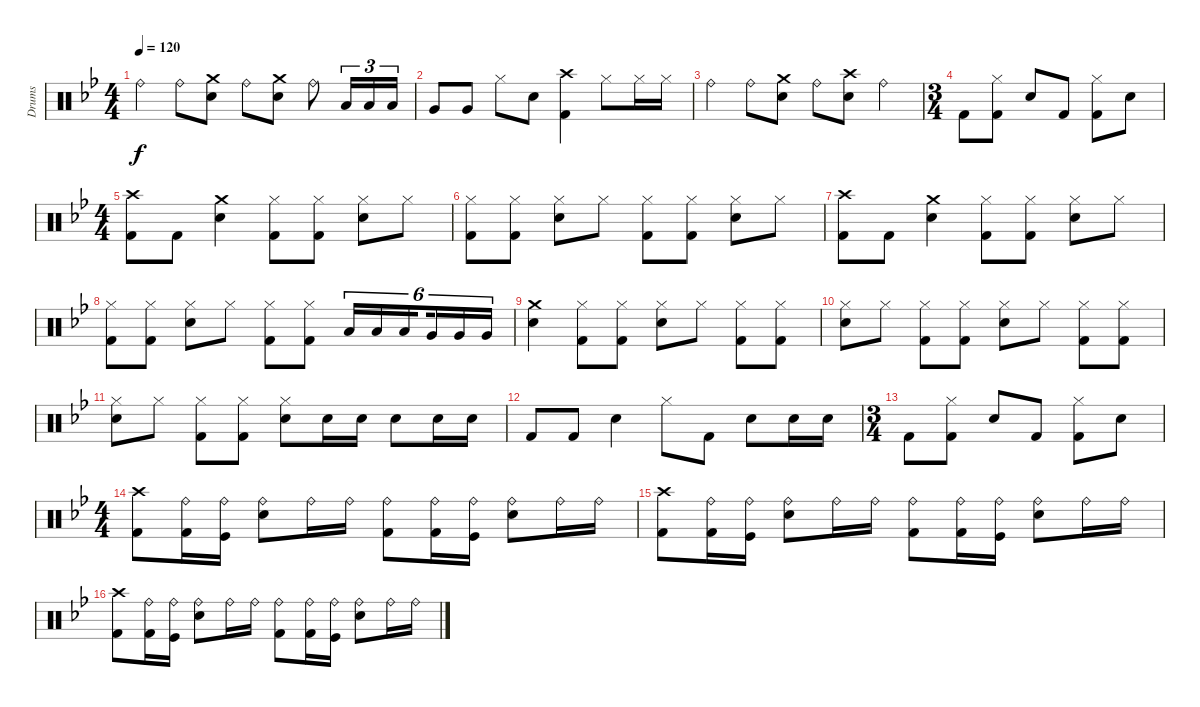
\track ("Drums" "Drums") {instrument percussion}
\staff {score}
\articulation defaults
\ts (4 4)
\tempo 120
\clef neutral
\ks bb "Ride (bell)".4{dy f} "Ride (bell)".8
("Crash medium (hit)" "Electric Snare (hit)").8 "Ride (bell)".8 ("Crash medium (hit)" "Electric Snare (hit)").8 "Ride (bell)".8 "Low Floor Tom (hit)".16{tu (3 2)} "Low Floor Tom (hit)".16{tu (3 2)} "Low Floor Tom (hit)".16{tu (3 2)} |
"Very Low Tom (hit)".8 "Very Low Tom (hit)".8 "Hi-Hat (closed)".8 "Electric Snare (hit)".8 ("Crash high (hit)" "Kick (hit) 2").4 "Hi-Hat (closed)".8 "Hi-Hat (closed)".16 "Hi-Hat (closed)".16 |
"Ride (bell)".4 "Ride (bell)".8 ("Crash medium (hit)" "Electric Snare (hit)").8 "Ride (bell)".8 ("Crash high (hit)" "Electric Snare (hit)").8 "Ride (bell)".4 |
\ts (3 4)
"Kick (hit) 2".8 ("Hi-Hat (closed)" "Kick (hit) 2").8 "Electric Snare (hit)".8 "Kick (hit) 2".8 ("Hi-Hat (closed)" "Kick (hit) 2").8 "Electric Snare (hit)".8 |
\ts (4 4)
("Crash high (hit)" "Kick (hit) 2").8 "Kick (hit) 2".8 ("Crash medium (hit)" "Electric Snare (hit)").4 ("Hi-Hat (closed)" "Kick (hit) 2").8 ("Hi-Hat (closed)" "Kick (hit) 2").8 ("Hi-Hat (closed)" "Electric Snare (hit)").8 "Hi-Hat (closed)".8 |
("Hi-Hat (closed)" "Kick (hit) 2").8 ("Hi-Hat (closed)" "Kick (hit) 2").8 ("Hi-Hat (closed)" "Electric Snare (hit)").8 "Hi-Hat (closed)".8 ("Hi-Hat (closed)" "Kick (hit) 2").8 ("Hi-Hat (closed)" "Kick (hit) 2").8 ("Hi-Hat (closed)" "Electric Snare (hit)").8 "Hi-Hat (closed)".8 |
("Crash high (hit)" "Kick (hit) 2").8 "Kick (hit) 2".8 ("Crash medium (hit)" "Electric Snare (hit)").4 ("Hi-Hat (closed)" "Kick (hit) 2").8 ("Hi-Hat (closed)" "Kick (hit) 2").8 ("Hi-Hat (closed)" "Electric Snare (hit)").8 "Hi-Hat (closed)".8 |
("Hi-Hat (closed)" "Kick (hit) 2").8 ("Hi-Hat (closed)" "Kick (hit) 2").8 ("Hi-Hat (closed)" "Electric Snare (hit)").8 "Hi-Hat (closed)".8 ("Hi-Hat (closed)" "Kick (hit) 2").8 ("Hi-Hat (closed)" "Kick (hit) 2").8 "Low Tom (hit)".16{tu (6 4)} "Low Tom (hit)".16{tu (6 4)} "Low Tom (hit)".16{tu (6 4) beam splitsecondary} "Very Low Tom (hit)".16{tu (6 4)} "Very Low Tom (hit)".16{tu (6 4)} "Very Low Tom (hit)".16{tu (6 4)} |
("Crash medium (hit)" "Electric Snare (hit)").4 ("Hi-Hat (closed)" "Kick (hit) 2").8 ("Hi-Hat (closed)" "Kick (hit) 2").8 ("Hi-Hat (closed)" "Electric Snare (hit)").8 "Hi-Hat (closed)".8 ("Hi-Hat (closed)" "Kick (hit) 2").8 ("Hi-Hat (closed)" "Kick (hit) 2").8 |
("Hi-Hat (closed)" "Electric Snare (hit)").8 "Hi-Hat (closed)".8 ("Hi-Hat (closed)" "Kick (hit) 2").8 ("Hi-Hat (closed)" "Kick (hit) 2").8 ("Hi-Hat (closed)" "Electric Snare (hit)").8 "Hi-Hat (closed)".8 ("Hi-Hat (closed)" "Kick (hit) 2").8 ("Hi-Hat (closed)" "Kick (hit) 2").8 |
("Hi-Hat (closed)" "Electric Snare (hit)").8 "Hi-Hat (closed)".8 ("Hi-Hat (closed)" "Kick (hit) 2").8 ("Hi-Hat (closed)" "Kick (hit) 2").8 ("Hi-Hat (closed)" "Electric Snare (hit)").8 "Electric Snare (hit)".16 "Electric Snare (hit)".16 "Electric Snare (hit)".8 "Electric Snare (hit)".16 "Electric Snare (hit)".16 |
"Kick (hit) 2".8 "Kick (hit) 2".8 "Electric Snare (hit)".4 "Hi-Hat (closed)".8 "Kick (hit) 2".8 "Electric Snare (hit)".8 "Electric Snare (hit)".16 "Electric Snare (hit)".16 |
\ts (3 4)
"Kick (hit) 2".8 ("Hi-Hat (closed)" "Kick (hit) 2").8 "Electric Snare (hit)".8 "Kick (hit) 2".8 ("Hi-Hat (closed)" "Kick (hit) 2").8 "Electric Snare (hit)".8 |
\ts (4 4)
("Crash high (hit)" "Kick (hit) 2").8 ("Ride (bell)" "Kick (hit) 2").16 ("Ride (bell)" "Kick (hit)").16 ("Ride (bell)" "Electric Snare (hit)").8 "Ride (bell)".16 "Ride (bell)".16 ("Ride (bell)" "Kick (hit) 2").8 ("Ride (bell)" "Kick (hit) 2").16 ("Ride (bell)" "Kick (hit)").16 ("Ride (bell)" "Electric Snare (hit)").8 "Ride (bell)".16 "Ride (bell)".16 |
("Crash high (hit)" "Kick (hit) 2").8 ("Ride (bell)" "Kick (hit) 2").16 ("Ride (bell)" "Kick (hit)").16 ("Ride (bell)" "Electric Snare (hit)").8 "Ride (bell)".16 "Ride (bell)".16 ("Ride (bell)" "Kick (hit) 2").8 ("Ride (bell)" "Kick (hit) 2").16 ("Ride (bell)" "Kick (hit)").16 ("Ride (bell)" "Electric Snare (hit)").8 "Ride (bell)".16 "Ride (bell)".16 |
("Crash high (hit)" "Kick (hit) 2").8 ("Ride (bell)" "Kick (hit) 2").16 ("Ride (bell)" "Kick (hit)").16 ("Ride (bell)" "Electric Snare (hit)").8 "Ride (bell)".16 "Ride (bell)".16 ("Ride (bell)" "Kick (hit) 2").8 ("Ride (bell)" "Kick (hit) 2").16 ("Ride (bell)" "Kick (hit)").16 ("Ride (bell)" "Electric Snare (hit)").8 "Ride (bell)".16 "Ride (bell)".16
